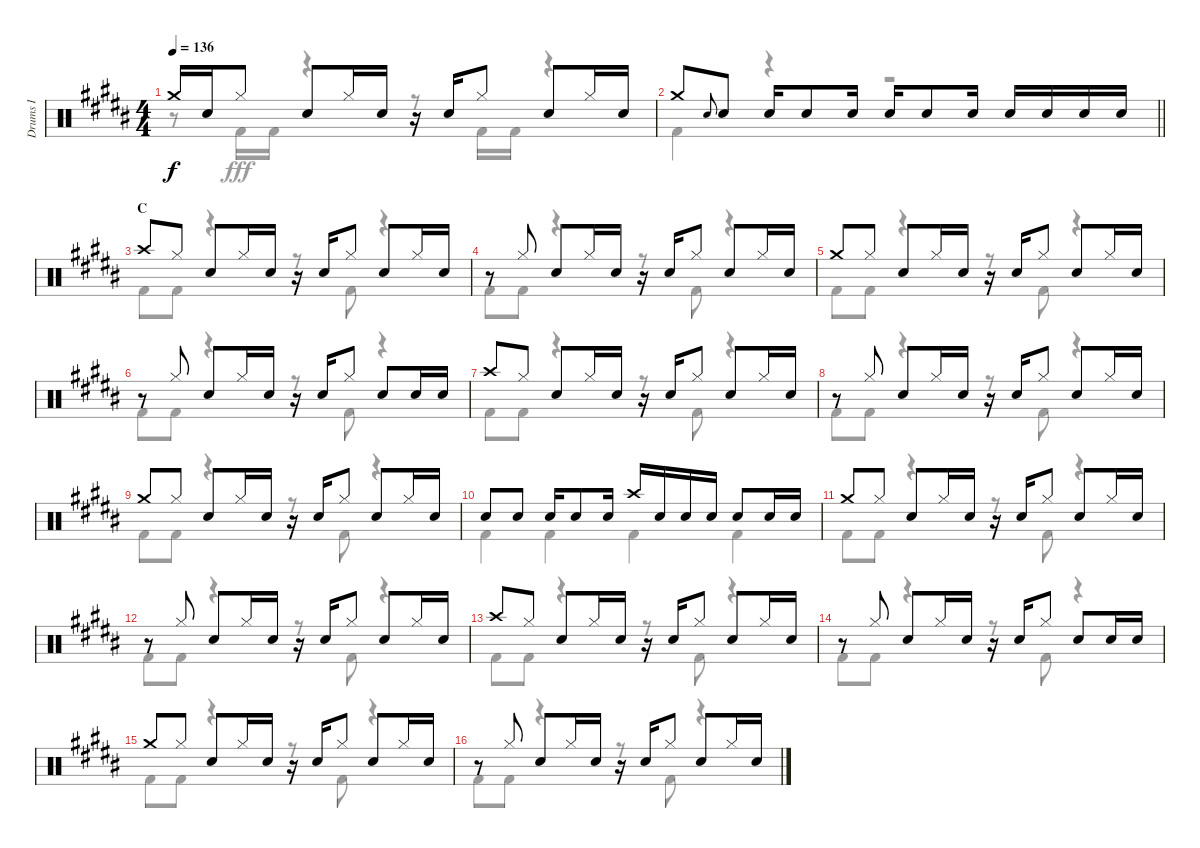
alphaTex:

\track ("Drums I" "Drums I") {instrument percussion}
\staff {score}
\articulation defaults
\voice
\ts (4 4)
\tempo 136
\clef neutral
\ks b "Crash medium (hit)".16{dy f} "Snare (hit) 2".16 "Hi-Hat (closed)".8 "Snare (hit) 2".8 "Hi-Hat (closed)".16 "Snare (hit) 2".16
r.16 "Snare (hit) 2".16 "Hi-Hat (closed)".8 "Snare (hit) 2".8 "Hi-Hat (closed)".16 "Snare (hit) 2".16 |
\barLineRight lightlight "Crash medium (hit)".8 "Snare (hit) 2".8{gr onbeat} "Snare (hit) 2".8 "Snare (hit) 2".16 "Snare (hit) 2".8 "Snare (hit) 2".16 "Snare (hit) 2".16 "Snare (hit) 2".8 "Snare (hit) 2".16 "Snare (hit) 2".16 "Snare (hit) 2".16 "Snare (hit) 2".16 "Snare (hit) 2".16
|
\section ("" "C")
"Crash high (hit)".8 "Hi-Hat (closed)".8 "Snare (hit) 2".8 "Hi-Hat (closed)".16 "Snare (hit) 2".16 r.16 "Snare (hit) 2".16 "Hi-Hat (closed)".8 "Snare (hit) 2".8 "Hi-Hat (closed)".16 "Snare (hit) 2".16 |
r.8 "Hi-Hat (closed)".8 "Snare (hit) 2".8 "Hi-Hat (closed)".16 "Snare (hit) 2".16 r.16 "Snare (hit) 2".16 "Hi-Hat (closed)".8 "Snare (hit) 2".8 "Hi-Hat (closed)".16 "Snare (hit) 2".16 |
"Crash medium (hit)".8 "Hi-Hat (closed)".8 "Snare (hit) 2".8 "Hi-Hat (closed)".16 "Snare (hit) 2".16 r.16 "Snare (hit) 2".16 "Hi-Hat (closed)".8 "Snare (hit) 2".8 "Hi-Hat (closed)".16 "Snare (hit) 2".16 |
r.8 "Hi-Hat (closed)".8 "Snare (hit) 2".8 "Hi-Hat (closed)".16 "Snare (hit) 2".16 r.16 "Snare (hit) 2".16 "Hi-Hat (closed)".8 "Snare (hit) 2".8 "Snare (hit) 2".16 "Snare (hit) 2".16 |
"Crash high (hit)".8 "Hi-Hat (closed)".8 "Snare (hit) 2".8 "Hi-Hat (closed)".16 "Snare (hit) 2".16 r.16 "Snare (hit) 2".16 "Hi-Hat (closed)".8 "Snare (hit) 2".8 "Hi-Hat (closed)".16 "Snare (hit) 2".16 |
r.8 "Hi-Hat (closed)".8 "Snare (hit) 2".8 "Hi-Hat (closed)".16 "Snare (hit) 2".16 r.16 "Snare (hit) 2".16 "Hi-Hat (closed)".8 "Snare (hit) 2".8 "Hi-Hat (closed)".16 "Snare (hit) 2".16 |
"Crash medium (hit)".8 "Hi-Hat (closed)".8 "Snare (hit) 2".8 "Hi-Hat (closed)".16 "Snare (hit) 2".16 r.16 "Snare (hit) 2".16 "Hi-Hat (closed)".8 "Snare (hit) 2".8 "Hi-Hat (closed)".16 "Snare (hit) 2".16 |
"Snare (hit) 2".8 "Snare (hit) 2".8 "Snare (hit) 2".16 "Snare (hit) 2".8 "Snare (hit) 2".16 "Crash high (hit)".16 "Snare (hit) 2".16 "Snare (hit) 2".16 "Snare (hit) 2".16 "Snare (hit) 2".8 "Snare (hit) 2".16 "Snare (hit) 2".16 |
"Crash medium (hit)".8 "Hi-Hat (closed)".8 "Snare (hit) 2".8 "Hi-Hat (closed)".16 "Snare (hit) 2".16 r.16 "Snare (hit) 2".16 "Hi-Hat (closed)".8 "Snare (hit) 2".8 "Hi-Hat (closed)".16 "Snare (hit) 2".16 |
r.8 "Hi-Hat (closed)".8 "Snare (hit) 2".8 "Hi-Hat (closed)".16 "Snare (hit) 2".16 r.16 "Snare (hit) 2".16 "Hi-Hat (closed)".8 "Snare (hit) 2".8 "Hi-Hat (closed)".16 "Snare (hit) 2".16 |
"Crash high (hit)".8 "Hi-Hat (closed)".8 "Snare (hit) 2".8 "Hi-Hat (closed)".16 "Snare (hit) 2".16 r.16 "Snare (hit) 2".16 "Hi-Hat (closed)".8 "Snare (hit) 2".8 "Hi-Hat (closed)".16 "Snare (hit) 2".16 |
r.8 "Hi-Hat (closed)".8 "Snare (hit) 2".8 "Hi-Hat (closed)".16 "Snare (hit) 2".16 r.16 "Snare (hit) 2".16 "Hi-Hat (closed)".8 "Snare (hit) 2".8 "Snare (hit) 2".16 "Snare (hit) 2".16 |
"Crash medium (hit)".8 "Hi-Hat (closed)".8 "Snare (hit) 2".8 "Hi-Hat (closed)".16 "Snare (hit) 2".16 r.16 "Snare (hit) 2".16 "Hi-Hat (closed)".8 "Snare (hit) 2".8 "Hi-Hat (closed)".16 "Snare (hit) 2".16 |
r.8 "Hi-Hat (closed)".8 "Snare (hit) 2".8 "Hi-Hat (closed)".16 "Snare (hit) 2".16 r.16 "Snare (hit) 2".16 "Hi-Hat (closed)".8 "Snare (hit) 2".8 "Hi-Hat (closed)".16 "Snare (hit) 2".16
\voice
\clef neutral
\ottava regular
\simile none
\ks b
r.8{dy fff} "Kick (hit) 2".16 "Kick (hit) 2".16 r.4 r.8 "Kick (hit) 2".16 "Kick (hit) 2".16 r.4 |
\barLineRight lightlight "Kick (hit) 2".4
r.4 r.2 |
"Kick (hit) 2".8 "Kick (hit) 2".8 r.4 r.8 "Kick (hit) 2".8 r.4 |
"Kick (hit) 2".8 "Kick (hit) 2".8 r.4 r.8 "Kick (hit) 2".8 r.4 |
"Kick (hit) 2".8 "Kick (hit) 2".8 r.4 r.8 "Kick (hit) 2".8 r.4 |
"Kick (hit) 2".8 "Kick (hit) 2".8 r.4 r.8 "Kick (hit) 2".8 r.4 |
"Kick (hit) 2".8 "Kick (hit) 2".8 r.4 r.8 "Kick (hit) 2".8 r.4 |
"Kick (hit) 2".8 "Kick (hit) 2".8 r.4 r.8 "Kick (hit) 2".8 r.4 |
"Kick (hit) 2".8 "Kick (hit) 2".8 r.4 r.8 "Kick (hit) 2".8 r.4 |
"Kick (hit) 2".4 "Kick (hit) 2".4 "Kick (hit) 2".4 "Kick (hit) 2".4 |
"Kick (hit) 2".8 "Kick (hit) 2".8 r.4 r.8 "Kick (hit) 2".8 r.4 |
"Kick (hit) 2".8 "Kick (hit) 2".8 r.4 r.8 "Kick (hit) 2".8 r.4 |
"Kick (hit) 2".8 "Kick (hit) 2".8 r.4 r.8 "Kick (hit) 2".8 r.4 |
"Kick (hit) 2".8 "Kick (hit) 2".8 r.4 r.8 "Kick (hit) 2".8 r.4 |
"Kick (hit) 2".8 "Kick (hit) 2".8 r.4 r.8 "Kick (hit) 2".8 r.4 |
"Kick (hit) 2".8 "Kick (hit) 2".8 r.4 r.8 "Kick (hit) 2".8 r.4
